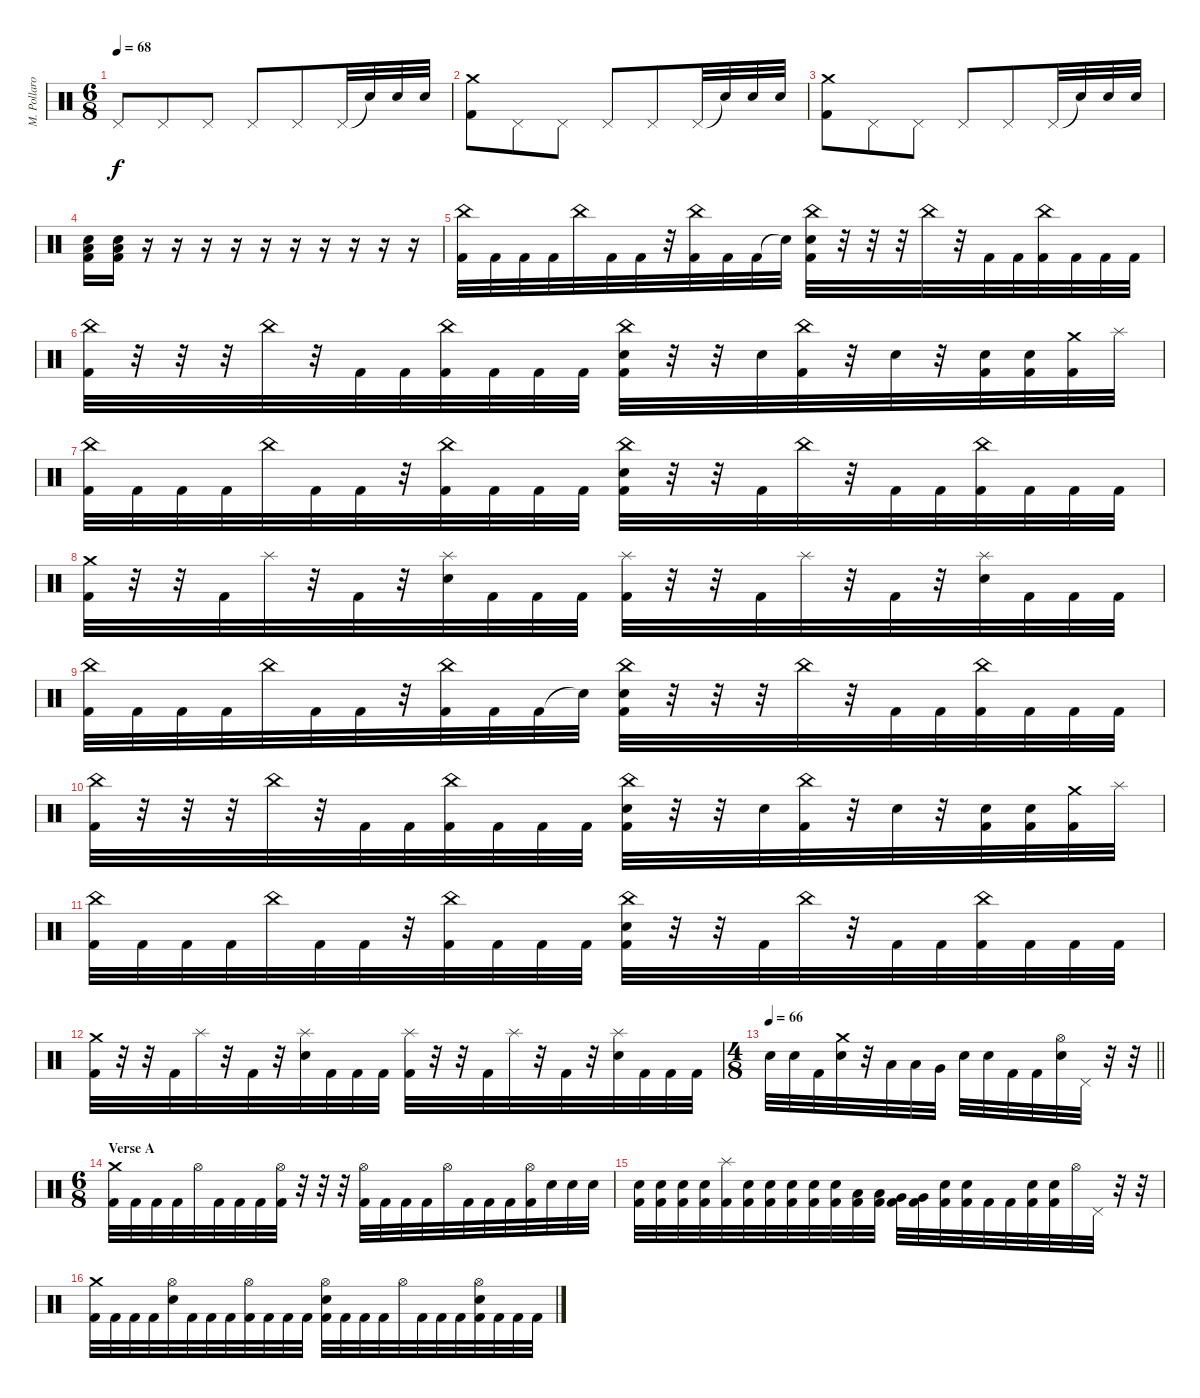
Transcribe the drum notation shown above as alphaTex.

\track ("M. Pollaro" "M. Pollaro") {instrument percussion}
\staff {score}
\articulation defaults
\ts (6 8)
\tempo 68
\clef neutral
\ks aminor "Pedal Hi-Hat (hit)".8{dy f} "Pedal Hi-Hat (hit)".8 "Pedal Hi-Hat (hit)".8 "Pedal Hi-Hat (hit)".8 "Pedal Hi-Hat (hit)".8 "Pedal Hi-Hat (hit)".32 "Snare (hit)"{t}.32 "Snare (hit) 2".32 "Snare (hit) 2".32
|
("Crash medium (hit)" "Kick (hit) 2").8 "Pedal Hi-Hat (hit)".8 "Pedal Hi-Hat (hit)".8 "Pedal Hi-Hat (hit)".8 "Pedal Hi-Hat (hit)".8 "Pedal Hi-Hat (hit)".32 "Snare (hit)"{t}.32 "Snare (hit) 2".32 "Snare (hit) 2".32 |
("Crash medium (hit)" "Kick (hit) 2").8 "Pedal Hi-Hat (hit)".8 "Pedal Hi-Hat (hit)".8 "Pedal Hi-Hat (hit)".8 "Pedal Hi-Hat (hit)".8 "Pedal Hi-Hat (hit)".32 "Snare (hit)"{t}.32 "Snare (hit) 2".32 "Snare (hit) 2".32 |
("Low Floor Tom (hit)" "Snare (hit) 2" "Kick (hit) 2").16 ("Low Floor Tom (hit)" "Snare (hit) 2" "Kick (hit) 2").16 r.16 r.16 r.16 r.16 r.16 r.16 r.16 r.16 r.16 r.16 |
("China (hit)" "Kick (hit) 2").32 "Kick (hit) 2".32 "Kick (hit) 2".32 "Kick (hit) 2".32 "China (hit)".32 "Kick (hit) 2".32 "Kick (hit) 2".32 r.32 ("China (hit)" "Kick (hit) 2").32 "Kick (hit) 2".32 "Kick (hit) 2".32 "Snare (hit)"{t}.32 ("China (hit)" "Snare (hit) 2" "Kick (hit) 2").32 r.32 r.32 r.32 "China (hit)".32 r.32 "Kick (hit) 2".32 "Kick (hit) 2".32 ("China (hit)" "Kick (hit) 2").32 "Kick (hit) 2".32 "Kick (hit) 2".32 "Kick (hit) 2".32 |
("China (hit)" "Kick (hit) 2").32 r.32 r.32 r.32 "China (hit)".32 r.32 "Kick (hit) 2".32 "Kick (hit) 2".32 ("China (hit)" "Kick (hit) 2").32 "Kick (hit) 2".32 "Kick (hit) 2".32 "Kick (hit) 2".32 ("China (hit)" "Snare (hit) 2" "Kick (hit) 2").32 r.32 r.32 "Snare (hit) 2".32 ("China (hit)" "Kick (hit) 2").32 r.32 "Snare (hit) 2".32 r.32 ("Snare (hit) 2" "Kick (hit) 2").32 ("Snare (hit) 2" "Kick (hit) 2").32 ("Crash medium (hit)" "Kick (hit) 2").32 "Splash (hit)".32 |
("China (hit)" "Kick (hit) 2").32 "Kick (hit) 2".32 "Kick (hit) 2".32 "Kick (hit) 2".32 "China (hit)".32 "Kick (hit) 2".32 "Kick (hit) 2".32 r.32 ("China (hit)" "Kick (hit) 2").32 "Kick (hit) 2".32 "Kick (hit) 2".32 "Kick (hit) 2".32 ("China (hit)" "Snare (hit) 2" "Kick (hit) 2").32 r.32 r.32 "Kick (hit) 2".32 "China (hit)".32 r.32 "Kick (hit) 2".32 "Kick (hit) 2".32 ("China (hit)" "Kick (hit) 2").32 "Kick (hit) 2".32 "Kick (hit) 2".32 "Kick (hit) 2".32 |
("Crash medium (hit)" "Kick (hit) 2").32 r.32 r.32 "Kick (hit) 2".32 "Splash (hit)".32 r.32 "Kick (hit) 2".32 r.32 ("Splash (hit)" "Snare (hit) 2").32 "Kick (hit) 2".32 "Kick (hit) 2".32 "Kick (hit) 2".32 ("Splash (hit)" "Kick (hit) 2").32 r.32 r.32 "Kick (hit) 2".32 "Splash (hit)".32 r.32 "Kick (hit) 2".32 r.32 ("Splash (hit)" "Snare (hit) 2").32 "Kick (hit) 2".32 "Kick (hit) 2".32 "Kick (hit) 2".32 |
("China (hit)" "Kick (hit) 2").32 "Kick (hit) 2".32 "Kick (hit) 2".32 "Kick (hit) 2".32 "China (hit)".32 "Kick (hit) 2".32 "Kick (hit) 2".32 r.32 ("China (hit)" "Kick (hit) 2").32 "Kick (hit) 2".32 "Kick (hit) 2".32 "Snare (hit)"{t}.32 ("China (hit)" "Snare (hit) 2" "Kick (hit) 2").32 r.32 r.32 r.32 "China (hit)".32 r.32 "Kick (hit) 2".32 "Kick (hit) 2".32 ("China (hit)" "Kick (hit) 2").32 "Kick (hit) 2".32 "Kick (hit) 2".32 "Kick (hit) 2".32 |
("China (hit)" "Kick (hit) 2").32 r.32 r.32 r.32 "China (hit)".32 r.32 "Kick (hit) 2".32 "Kick (hit) 2".32 ("China (hit)" "Kick (hit) 2").32 "Kick (hit) 2".32 "Kick (hit) 2".32 "Kick (hit) 2".32 ("China (hit)" "Snare (hit) 2" "Kick (hit) 2").32 r.32 r.32 "Snare (hit) 2".32 ("China (hit)" "Kick (hit) 2").32 r.32 "Snare (hit) 2".32 r.32 ("Snare (hit) 2" "Kick (hit) 2").32 ("Snare (hit) 2" "Kick (hit) 2").32 ("Crash medium (hit)" "Kick (hit) 2").32 "Splash (hit)".32 |
("China (hit)" "Kick (hit) 2").32 "Kick (hit) 2".32 "Kick (hit) 2".32 "Kick (hit) 2".32 "China (hit)".32 "Kick (hit) 2".32 "Kick (hit) 2".32 r.32 ("China (hit)" "Kick (hit) 2").32 "Kick (hit) 2".32 "Kick (hit) 2".32 "Kick (hit) 2".32 ("China (hit)" "Snare (hit) 2" "Kick (hit) 2").32 r.32 r.32 "Kick (hit) 2".32 "China (hit)".32 r.32 "Kick (hit) 2".32 "Kick (hit) 2".32 ("China (hit)" "Kick (hit) 2").32 "Kick (hit) 2".32 "Kick (hit) 2".32 "Kick (hit) 2".32 |
("Crash medium (hit)" "Kick (hit) 2").32 r.32 r.32 "Kick (hit) 2".32 "Splash (hit)".32 r.32 "Kick (hit) 2".32 r.32 ("Splash (hit)" "Snare (hit) 2").32 "Kick (hit) 2".32 "Kick (hit) 2".32 "Kick (hit) 2".32 ("Splash (hit)" "Kick (hit) 2").32 r.32 r.32 "Kick (hit) 2".32 "Splash (hit)".32 r.32 "Kick (hit) 2".32 r.32 ("Splash (hit)" "Snare (hit) 2").32 "Kick (hit) 2".32 "Kick (hit) 2".32 "Kick (hit) 2".32 |
\ts (4 8)
\tempo 66
\barLineRight lightlight "Snare (hit) 2".32 "Snare (hit) 2".32 "Kick (hit) 2".32
("Crash medium (hit)" "Snare (hit) 2").32 r.32 "Low Tom (hit)".32 "Low Tom (hit)".32 "Very Low Tom (hit)".32 "Snare (hit) 2".32 "Snare (hit) 2".32 "Kick (hit) 2".32 "Kick (hit) 2".32 ("Hi-Hat (open)" "Snare (hit) 2").32 "Pedal Hi-Hat (hit)".32 r.32 r.32 |
\ts (6 8)
\section ("" "Verse A")
("Crash medium (hit)" "Kick (hit) 2").32 "Kick (hit) 2".32 "Kick (hit) 2".32 "Kick (hit) 2".32 "Hi-Hat (open)".32 "Kick (hit) 2".32 "Kick (hit) 2".32 "Kick (hit) 2".32 ("Hi-Hat (open)" "Kick (hit) 2").32 r.32 r.32 r.32 ("Hi-Hat (open)" "Kick (hit) 2").32 "Kick (hit) 2".32 "Kick (hit) 2".32 "Kick (hit) 2".32 "Hi-Hat (open)".32 "Kick (hit) 2".32 "Kick (hit) 2".32 "Kick (hit) 2".32 ("Hi-Hat (open)" "Kick (hit) 2").32 "Snare (hit) 2".32 "Snare (hit) 2".32 "Snare (hit) 2".32 |
("Snare (hit) 2" "Kick (hit) 2").32 ("Snare (hit) 2" "Kick (hit) 2").32 ("Snare (hit) 2" "Kick (hit) 2").32 ("Snare (hit) 2" "Kick (hit) 2").32 ("Splash (hit)" "Kick (hit) 2").32 ("Snare (hit) 2" "Kick (hit) 2").32 ("Snare (hit) 2" "Kick (hit) 2").32 ("Snare (hit) 2" "Kick (hit) 2").32 ("Snare (hit) 2" "Kick (hit) 2").32 ("Snare (hit) 2" "Kick (hit) 2").32 ("Low Tom (hit)" "Kick (hit) 2").32 ("Low Tom (hit)" "Kick (hit) 2").32 ("Very Low Tom (hit)" "Kick (hit) 2").32 ("Very Low Tom (hit)" "Kick (hit) 2").32 ("Snare (hit) 2" "Kick (hit) 2").32 ("Snare (hit) 2" "Kick (hit) 2").32 "Kick (hit) 2".32 "Kick (hit) 2".32 ("Snare (hit) 2" "Kick (hit) 2").32 ("Snare (hit) 2" "Kick (hit) 2").32 "Hi-Hat (open)".32 "Pedal Hi-Hat (hit)".32 r.32 r.32 |
("Crash medium (hit)" "Kick (hit) 2").32 "Kick (hit) 2".32 "Kick (hit) 2".32 "Kick (hit) 2".32 ("Hi-Hat (open)" "Snare (hit) 2").32 "Kick (hit) 2".32 "Kick (hit) 2".32 "Kick (hit) 2".32 ("Hi-Hat (open)" "Kick (hit) 2").32 "Kick (hit) 2".32 "Kick (hit) 2".32 "Kick (hit) 2".32 ("Hi-Hat (open)" "Snare (hit) 2" "Kick (hit) 2").32 "Kick (hit) 2".32 "Kick (hit) 2".32 "Kick (hit) 2".32 "Hi-Hat (open)".32 "Kick (hit) 2".32 "Kick (hit) 2".32 "Kick (hit) 2".32 ("Hi-Hat (open)" "Snare (hit) 2" "Kick (hit) 2").32 "Kick (hit) 2".32 "Kick (hit) 2".32 "Kick (hit) 2".32
